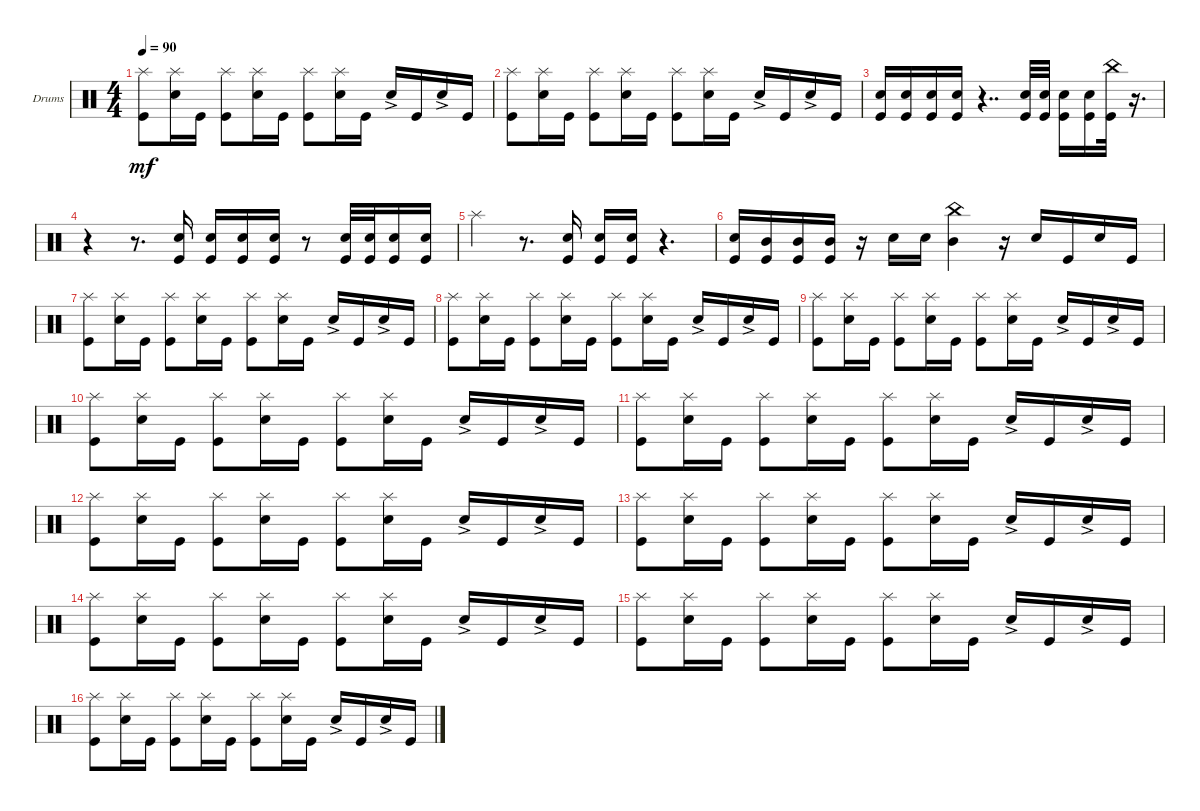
\defaultSystemsLayout 4
\bracketExtendMode groupsimilarinstruments
\firstSystemTrackNameOrientation horizontal
\otherSystemsTrackNameOrientation horizontal
\track ("Drumkit" "Drums") {instrument percussion}
\staff {score}
\articulation defaults
\ts (4 4)
\tempo 90
\clef neutral
\ks c
("Kick (hit)" "Splash (hit)").8{dy mf} ("Snare (hit) 2" "Splash (hit)").16 "Kick (hit)".16 ("Kick (hit)" "Splash (hit)").8 ("Snare (hit) 2" "Splash (hit)").16 "Kick (hit)".16 ("Kick (hit)" "Splash (hit)").8 ("Snare (hit) 2" "Splash (hit)").16 "Kick (hit)".16 "Snare (hit) 2"{ac}.16 "Kick (hit)".16 "Snare (hit) 2"{ac}.16 "Kick (hit)".16 |
("Kick (hit)" "Splash (hit)").8 ("Snare (hit) 2" "Splash (hit)").16 "Kick (hit)".16 ("Kick (hit)" "Splash (hit)").8 ("Snare (hit) 2" "Splash (hit)").16 "Kick (hit)".16 ("Kick (hit)" "Splash (hit)").8 ("Snare (hit) 2" "Splash (hit)").16 "Kick (hit)".16 "Snare (hit) 2"{ac}.16 "Kick (hit)".16 "Snare (hit) 2"{ac}.16 "Kick (hit)".16 |
("Snare (hit) 2" "Kick (hit)").16 ("Kick (hit)" "Snare (hit) 2").16 ("Kick (hit)" "Snare (hit) 2").16 ("Kick (hit)" "Snare (hit) 2").16 r.4{dd} ("Kick (hit)" "Snare (hit) 2").32 ("Kick (hit)" "Snare (hit) 2").32 ("Kick (hit)" "Snare (hit) 2").16 ("Kick (hit)" "Snare (hit) 2").16 ("Kick (hit)" "China (hit)").32 r.16{d} |
r.4 r.8{d} ("Snare (hit) 2" "Kick (hit)").16 ("Kick (hit)" "Snare (hit) 2").16 ("Kick (hit)" "Snare (hit) 2").16 ("Kick (hit)" "Snare (hit) 2").16 r.8 ("Kick (hit)" "Snare (hit) 2").32 ("Kick (hit)" "Snare (hit) 2").32 ("Kick (hit)" "Snare (hit) 2").16 ("Kick (hit)" "Snare (hit) 2").16 |
"Splash (hit)".4 r.8{d} ("Kick (hit)" "Snare (hit) 2").16 ("Kick (hit)" "Snare (hit) 2").16 ("Kick (hit)" "Snare (hit) 2").16 r.4{d} |
("Snare (hit) 2" "Kick (hit)").16 ("Kick (hit)" "Mid Tom (hit)").16 ("Kick (hit)" "Mid Tom (hit)").16 ("Kick (hit)" "Mid Tom (hit)").16 r.16 "Snare (hit) 2".16 "Snare (hit) 2".16 ("China (hit)" "Mid Tom (hit)").4 r.16 "Snare (hit) 2".16 "Kick (hit)".16 "Snare (hit) 2".16 "Kick (hit)".16 |
("Kick (hit)" "Splash (hit)").8 ("Snare (hit) 2" "Splash (hit)").16 "Kick (hit)".16 ("Kick (hit)" "Splash (hit)").8 ("Snare (hit) 2" "Splash (hit)").16 "Kick (hit)".16 ("Kick (hit)" "Splash (hit)").8 ("Snare (hit) 2" "Splash (hit)").16 "Kick (hit)".16 "Snare (hit) 2"{ac}.16 "Kick (hit)".16 "Snare (hit) 2"{ac}.16 "Kick (hit)".16 |
("Kick (hit)" "Splash (hit)").8 ("Snare (hit) 2" "Splash (hit)").16 "Kick (hit)".16 ("Kick (hit)" "Splash (hit)").8 ("Snare (hit) 2" "Splash (hit)").16 "Kick (hit)".16 ("Kick (hit)" "Splash (hit)").8 ("Snare (hit) 2" "Splash (hit)").16 "Kick (hit)".16 "Snare (hit) 2"{ac}.16 "Kick (hit)".16 "Snare (hit) 2"{ac}.16 "Kick (hit)".16 |
("Kick (hit)" "Splash (hit)").8 ("Snare (hit) 2" "Splash (hit)").16 "Kick (hit)".16 ("Kick (hit)" "Splash (hit)").8 ("Snare (hit) 2" "Splash (hit)").16 "Kick (hit)".16 ("Kick (hit)" "Splash (hit)").8 ("Snare (hit) 2" "Splash (hit)").16 "Kick (hit)".16 "Snare (hit) 2"{ac}.16 "Kick (hit)".16 "Snare (hit) 2"{ac}.16 "Kick (hit)".16 |
("Kick (hit)" "Splash (hit)").8 ("Snare (hit) 2" "Splash (hit)").16 "Kick (hit)".16 ("Kick (hit)" "Splash (hit)").8 ("Snare (hit) 2" "Splash (hit)").16 "Kick (hit)".16 ("Kick (hit)" "Splash (hit)").8 ("Snare (hit) 2" "Splash (hit)").16 "Kick (hit)".16 "Snare (hit) 2"{ac}.16 "Kick (hit)".16 "Snare (hit) 2"{ac}.16 "Kick (hit)".16 |
("Kick (hit)" "Splash (hit)").8 ("Snare (hit) 2" "Splash (hit)").16 "Kick (hit)".16 ("Kick (hit)" "Splash (hit)").8 ("Snare (hit) 2" "Splash (hit)").16 "Kick (hit)".16 ("Kick (hit)" "Splash (hit)").8 ("Snare (hit) 2" "Splash (hit)").16 "Kick (hit)".16 "Snare (hit) 2"{ac}.16 "Kick (hit)".16 "Snare (hit) 2"{ac}.16 "Kick (hit)".16 |
("Kick (hit)" "Splash (hit)").8 ("Snare (hit) 2" "Splash (hit)").16 "Kick (hit)".16 ("Kick (hit)" "Splash (hit)").8 ("Snare (hit) 2" "Splash (hit)").16 "Kick (hit)".16 ("Kick (hit)" "Splash (hit)").8 ("Snare (hit) 2" "Splash (hit)").16 "Kick (hit)".16 "Snare (hit) 2"{ac}.16 "Kick (hit)".16 "Snare (hit) 2"{ac}.16 "Kick (hit)".16 |
("Kick (hit)" "Splash (hit)").8 ("Snare (hit) 2" "Splash (hit)").16 "Kick (hit)".16 ("Kick (hit)" "Splash (hit)").8 ("Snare (hit) 2" "Splash (hit)").16 "Kick (hit)".16 ("Kick (hit)" "Splash (hit)").8 ("Snare (hit) 2" "Splash (hit)").16 "Kick (hit)".16 "Snare (hit) 2"{ac}.16 "Kick (hit)".16 "Snare (hit) 2"{ac}.16 "Kick (hit)".16 |
("Kick (hit)" "Splash (hit)").8 ("Snare (hit) 2" "Splash (hit)").16 "Kick (hit)".16 ("Kick (hit)" "Splash (hit)").8 ("Snare (hit) 2" "Splash (hit)").16 "Kick (hit)".16 ("Kick (hit)" "Splash (hit)").8 ("Snare (hit) 2" "Splash (hit)").16 "Kick (hit)".16 "Snare (hit) 2"{ac}.16 "Kick (hit)".16 "Snare (hit) 2"{ac}.16 "Kick (hit)".16 |
("Kick (hit)" "Splash (hit)").8 ("Snare (hit) 2" "Splash (hit)").16 "Kick (hit)".16 ("Kick (hit)" "Splash (hit)").8 ("Snare (hit) 2" "Splash (hit)").16 "Kick (hit)".16 ("Kick (hit)" "Splash (hit)").8 ("Snare (hit) 2" "Splash (hit)").16 "Kick (hit)".16 "Snare (hit) 2"{ac}.16 "Kick (hit)".16 "Snare (hit) 2"{ac}.16 "Kick (hit)".16 |
("Kick (hit)" "Splash (hit)").8 ("Snare (hit) 2" "Splash (hit)").16 "Kick (hit)".16 ("Kick (hit)" "Splash (hit)").8 ("Snare (hit) 2" "Splash (hit)").16 "Kick (hit)".16 ("Kick (hit)" "Splash (hit)").8 ("Snare (hit) 2" "Splash (hit)").16 "Kick (hit)".16 "Snare (hit) 2"{ac}.16 "Kick (hit)".16 "Snare (hit) 2"{ac}.16 "Kick (hit)".16
